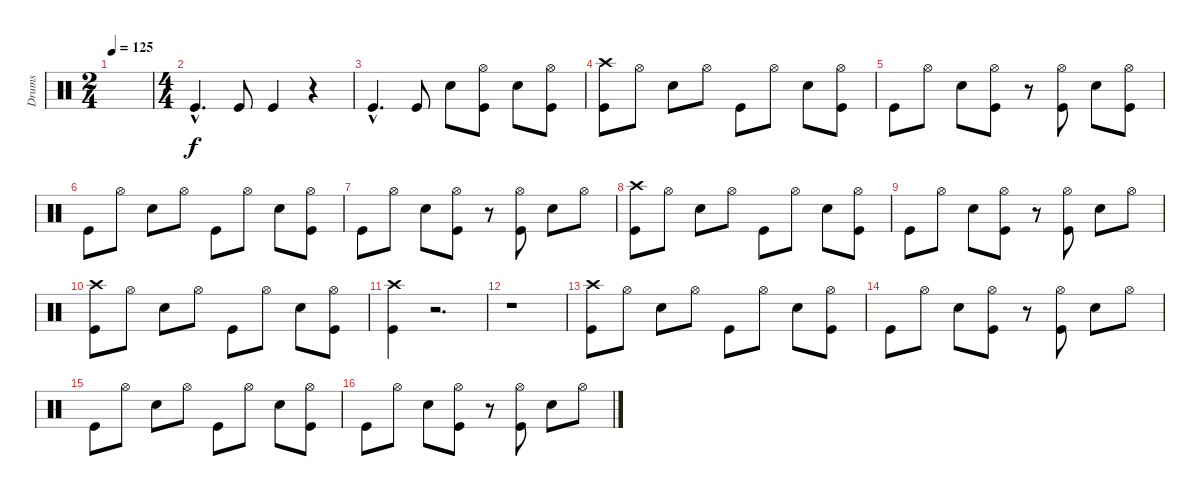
\track ("Drums" "Drums") {instrument percussion}
\staff {score}
\articulation defaults
\ts (2 4)
\tempo 125
\clef neutral
\ks c
|
\ts (4 4)
"Kick (hit)"{hac}.4{d} "Kick (hit)".8 "Kick (hit)".4 r.4 |
"Kick (hit)"{hac}.4{d} "Kick (hit)".8 "Electric Snare (hit)".8 ("Hi-Hat (open)" "Kick (hit)").8 "Electric Snare (hit)".8 ("Hi-Hat (open)" "Kick (hit)").8 |
("Crash high (hit)" "Kick (hit)").8 "Hi-Hat (open)".8 "Electric Snare (hit)".8 "Hi-Hat (open)".8 "Kick (hit)".8 "Hi-Hat (open)".8 "Electric Snare (hit)".8 ("Hi-Hat (open)" "Kick (hit)").8 |
"Kick (hit)".8 "Hi-Hat (open)".8 "Electric Snare (hit)".8 ("Hi-Hat (open)" "Kick (hit)").8 r.8 ("Hi-Hat (open)" "Kick (hit)").8 "Electric Snare (hit)".8 ("Hi-Hat (open)" "Kick (hit)").8 |
"Kick (hit)".8 "Hi-Hat (open)".8 "Electric Snare (hit)".8 "Hi-Hat (open)".8 "Kick (hit)".8 "Hi-Hat (open)".8 "Electric Snare (hit)".8 ("Hi-Hat (open)" "Kick (hit)").8 |
"Kick (hit)".8 "Hi-Hat (open)".8 "Electric Snare (hit)".8 ("Hi-Hat (open)" "Kick (hit)").8 r.8 ("Hi-Hat (open)" "Kick (hit)").8 "Electric Snare (hit)".8 "Hi-Hat (open)".8 |
("Crash high (hit)" "Kick (hit)").8 "Hi-Hat (open)".8 "Electric Snare (hit)".8 "Hi-Hat (open)".8 "Kick (hit)".8 "Hi-Hat (open)".8 "Electric Snare (hit)".8 ("Hi-Hat (open)" "Kick (hit)").8 |
"Kick (hit)".8 "Hi-Hat (open)".8 "Electric Snare (hit)".8 ("Hi-Hat (open)" "Kick (hit)").8 r.8 ("Hi-Hat (open)" "Kick (hit)").8 "Electric Snare (hit)".8 "Hi-Hat (open)".8 |
("Crash high (hit)" "Kick (hit)").8 "Hi-Hat (open)".8 "Electric Snare (hit)".8 "Hi-Hat (open)".8 "Kick (hit)".8 "Hi-Hat (open)".8 "Electric Snare (hit)".8 ("Hi-Hat (open)" "Kick (hit)").8 |
("Crash high (hit)" "Kick (hit)").4 r.2{d} |
r.1 |
("Crash high (hit)" "Kick (hit)").8 "Hi-Hat (open)".8 "Electric Snare (hit)".8 "Hi-Hat (open)".8 "Kick (hit)".8 "Hi-Hat (open)".8 "Electric Snare (hit)".8 ("Hi-Hat (open)" "Kick (hit)").8 |
"Kick (hit)".8 "Hi-Hat (open)".8 "Electric Snare (hit)".8 ("Hi-Hat (open)" "Kick (hit)").8 r.8 ("Hi-Hat (open)" "Kick (hit)").8 "Electric Snare (hit)".8 "Hi-Hat (open)".8 |
"Kick (hit)".8 "Hi-Hat (open)".8 "Electric Snare (hit)".8 "Hi-Hat (open)".8 "Kick (hit)".8 "Hi-Hat (open)".8 "Electric Snare (hit)".8 ("Hi-Hat (open)" "Kick (hit)").8 |
"Kick (hit)".8 "Hi-Hat (open)".8 "Electric Snare (hit)".8 ("Hi-Hat (open)" "Kick (hit)").8 r.8 ("Hi-Hat (open)" "Kick (hit)").8 "Electric Snare (hit)".8 "Hi-Hat (open)".8
